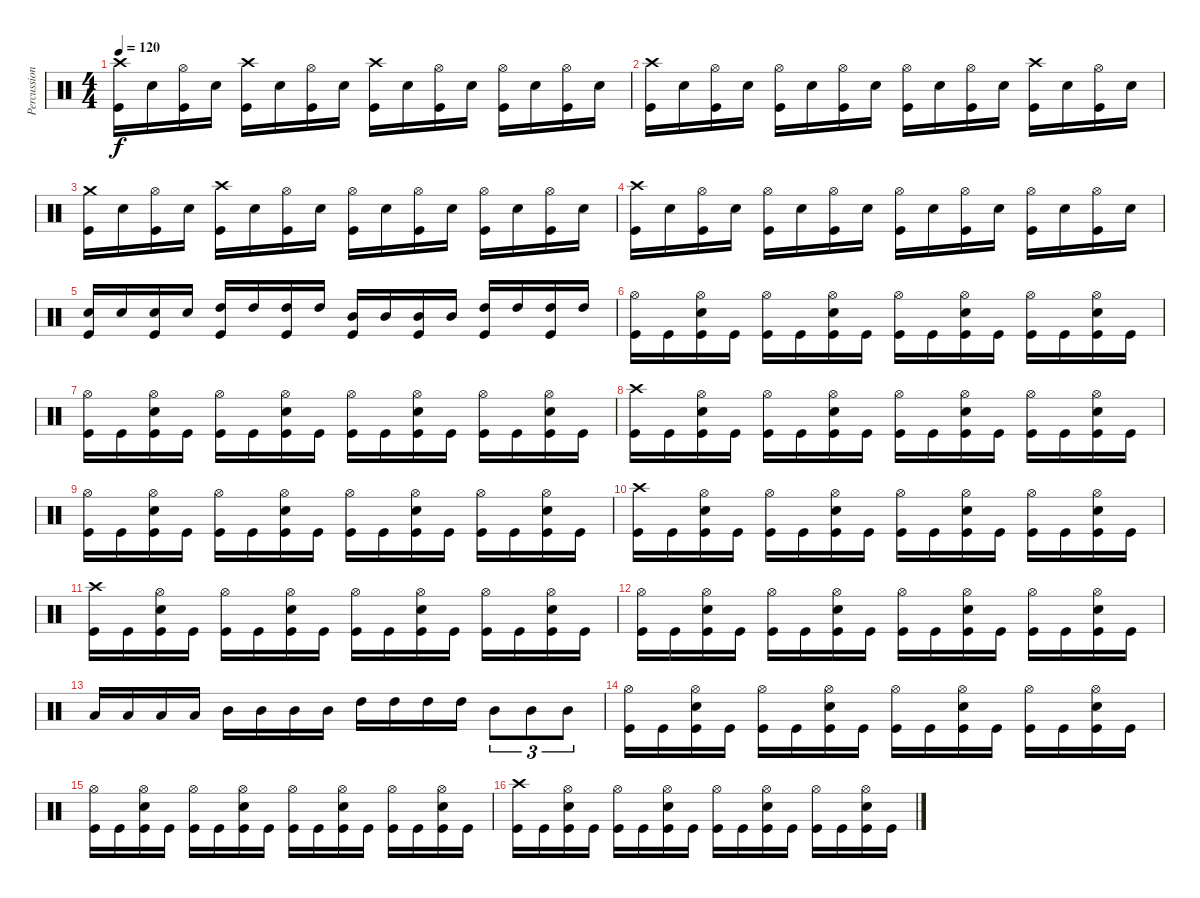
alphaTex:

\track ("Percussioni" "Percussion") {instrument percussion}
\staff {score}
\articulation defaults
\ts (4 4)
\tempo 120
\clef neutral
\ks c
("Crash high (hit)" "Kick (hit)").16{dy f} "Electric Snare (hit)".16 ("Hi-Hat (open)" "Kick (hit)").16 "Electric Snare (hit)".16 ("Crash high (hit)" "Kick (hit)").16 "Electric Snare (hit)".16 ("Hi-Hat (open)" "Kick (hit)").16 "Electric Snare (hit)".16 ("Crash high (hit)" "Kick (hit)").16 "Electric Snare (hit)".16 ("Hi-Hat (open)" "Kick (hit)").16 "Electric Snare (hit)".16 ("Hi-Hat (open)" "Kick (hit)").16 "Electric Snare (hit)".16 ("Hi-Hat (open)" "Kick (hit)").16 "Electric Snare (hit)".16 |
("Crash high (hit)" "Kick (hit)").16 "Electric Snare (hit)".16 ("Hi-Hat (open)" "Kick (hit)").16 "Electric Snare (hit)".16 ("Hi-Hat (open)" "Kick (hit)").16 "Electric Snare (hit)".16 ("Hi-Hat (open)" "Kick (hit)").16 "Electric Snare (hit)".16 ("Hi-Hat (open)" "Kick (hit)").16 "Electric Snare (hit)".16 ("Hi-Hat (open)" "Kick (hit)").16 "Electric Snare (hit)".16 ("Crash high (hit)" "Kick (hit)").16 "Electric Snare (hit)".16 ("Hi-Hat (open)" "Kick (hit)").16 "Electric Snare (hit)".16 |
("Crash medium (hit)" "Kick (hit)").16 "Electric Snare (hit)".16 ("Hi-Hat (open)" "Kick (hit)").16 "Electric Snare (hit)".16 ("Crash high (hit)" "Kick (hit)").16 "Electric Snare (hit)".16 ("Hi-Hat (open)" "Kick (hit)").16 "Electric Snare (hit)".16 ("Hi-Hat (open)" "Kick (hit)").16 "Electric Snare (hit)".16 ("Hi-Hat (open)" "Kick (hit)").16 "Electric Snare (hit)".16 ("Hi-Hat (open)" "Kick (hit)").16 "Electric Snare (hit)".16 ("Hi-Hat (open)" "Kick (hit)").16 "Electric Snare (hit)".16 |
("Crash high (hit)" "Kick (hit)").16 "Electric Snare (hit)".16 ("Hi-Hat (open)" "Kick (hit)").16 "Electric Snare (hit)".16 ("Hi-Hat (open)" "Kick (hit)").16 "Electric Snare (hit)".16 ("Hi-Hat (open)" "Kick (hit)").16 "Electric Snare (hit)".16 ("Hi-Hat (open)" "Kick (hit)").16 "Electric Snare (hit)".16 ("Hi-Hat (open)" "Kick (hit)").16 "Electric Snare (hit)".16 ("Hi-Hat (open)" "Kick (hit)").16 "Electric Snare (hit)".16 ("Hi-Hat (open)" "Kick (hit)").16 "Electric Snare (hit)".16 |
("Electric Snare (hit)" "Kick (hit)").16 "Electric Snare (hit)".16 ("Electric Snare (hit)" "Kick (hit)").16 "Electric Snare (hit)".16 ("High Tom (hit)" "Kick (hit)").16 "High Tom (hit)".16 ("High Tom (hit)" "Kick (hit)").16 "High Tom (hit)".16 ("Mid Tom (hit)" "Kick (hit)").16 "Mid Tom (hit)".16 ("Mid Tom (hit)" "Kick (hit)").16 "Mid Tom (hit)".16 ("High Tom (hit)" "Kick (hit)").16 "High Tom (hit)".16 ("High Tom (hit)" "Kick (hit)").16 "High Tom (hit)".16 |
("Hi-Hat (open)" "Kick (hit)").16 "Kick (hit)".16 ("Hi-Hat (open)" "Electric Snare (hit)" "Kick (hit)").16 "Kick (hit)".16 ("Hi-Hat (open)" "Kick (hit)").16 "Kick (hit)".16 ("Hi-Hat (open)" "Electric Snare (hit)" "Kick (hit)").16 "Kick (hit)".16 ("Hi-Hat (open)" "Kick (hit)").16 "Kick (hit)".16 ("Hi-Hat (open)" "Electric Snare (hit)" "Kick (hit)").16 "Kick (hit)".16 ("Hi-Hat (open)" "Kick (hit)").16 "Kick (hit)".16 ("Hi-Hat (open)" "Electric Snare (hit)" "Kick (hit)").16 "Kick (hit)".16 |
("Hi-Hat (open)" "Kick (hit)").16 "Kick (hit)".16 ("Hi-Hat (open)" "Electric Snare (hit)" "Kick (hit)").16 "Kick (hit)".16 ("Hi-Hat (open)" "Kick (hit)").16 "Kick (hit)".16 ("Hi-Hat (open)" "Electric Snare (hit)" "Kick (hit)").16 "Kick (hit)".16 ("Hi-Hat (open)" "Kick (hit)").16 "Kick (hit)".16 ("Hi-Hat (open)" "Electric Snare (hit)" "Kick (hit)").16 "Kick (hit)".16 ("Hi-Hat (open)" "Kick (hit)").16 "Kick (hit)".16 ("Hi-Hat (open)" "Electric Snare (hit)" "Kick (hit)").16 "Kick (hit)".16 |
("Crash high (hit)" "Kick (hit)").16 "Kick (hit)".16 ("Hi-Hat (open)" "Electric Snare (hit)" "Kick (hit)").16 "Kick (hit)".16 ("Hi-Hat (open)" "Kick (hit)").16 "Kick (hit)".16 ("Hi-Hat (open)" "Electric Snare (hit)" "Kick (hit)").16 "Kick (hit)".16 ("Hi-Hat (open)" "Kick (hit)").16 "Kick (hit)".16 ("Hi-Hat (open)" "Electric Snare (hit)" "Kick (hit)").16 "Kick (hit)".16 ("Hi-Hat (open)" "Kick (hit)").16 "Kick (hit)".16 ("Hi-Hat (open)" "Electric Snare (hit)" "Kick (hit)").16 "Kick (hit)".16 |
("Hi-Hat (open)" "Kick (hit)").16 "Kick (hit)".16 ("Hi-Hat (open)" "Electric Snare (hit)" "Kick (hit)").16 "Kick (hit)".16 ("Hi-Hat (open)" "Kick (hit)").16 "Kick (hit)".16 ("Hi-Hat (open)" "Electric Snare (hit)" "Kick (hit)").16 "Kick (hit)".16 ("Hi-Hat (open)" "Kick (hit)").16 "Kick (hit)".16 ("Hi-Hat (open)" "Electric Snare (hit)" "Kick (hit)").16 "Kick (hit)".16 ("Hi-Hat (open)" "Kick (hit)").16 "Kick (hit)".16 ("Hi-Hat (open)" "Electric Snare (hit)" "Kick (hit)").16 "Kick (hit)".16 |
("Crash high (hit)" "Kick (hit)").16 "Kick (hit)".16 ("Hi-Hat (open)" "Electric Snare (hit)" "Kick (hit)").16 "Kick (hit)".16 ("Hi-Hat (open)" "Kick (hit)").16 "Kick (hit)".16 ("Hi-Hat (open)" "Electric Snare (hit)" "Kick (hit)").16 "Kick (hit)".16 ("Hi-Hat (open)" "Kick (hit)").16 "Kick (hit)".16 ("Hi-Hat (open)" "Electric Snare (hit)" "Kick (hit)").16 "Kick (hit)".16 ("Hi-Hat (open)" "Kick (hit)").16 "Kick (hit)".16 ("Hi-Hat (open)" "Electric Snare (hit)" "Kick (hit)").16 "Kick (hit)".16 |
("Crash high (hit)" "Kick (hit)").16 "Kick (hit)".16 ("Hi-Hat (open)" "Electric Snare (hit)" "Kick (hit)").16 "Kick (hit)".16 ("Hi-Hat (open)" "Kick (hit)").16 "Kick (hit)".16 ("Hi-Hat (open)" "Electric Snare (hit)" "Kick (hit)").16 "Kick (hit)".16 ("Hi-Hat (open)" "Kick (hit)").16 "Kick (hit)".16 ("Hi-Hat (open)" "Electric Snare (hit)" "Kick (hit)").16 "Kick (hit)".16 ("Hi-Hat (open)" "Kick (hit)").16 "Kick (hit)".16 ("Hi-Hat (open)" "Electric Snare (hit)" "Kick (hit)").16 "Kick (hit)".16 |
("Hi-Hat (open)" "Kick (hit)").16 "Kick (hit)".16 ("Hi-Hat (open)" "Electric Snare (hit)" "Kick (hit)").16 "Kick (hit)".16 ("Hi-Hat (open)" "Kick (hit)").16 "Kick (hit)".16 ("Hi-Hat (open)" "Electric Snare (hit)" "Kick (hit)").16 "Kick (hit)".16 ("Hi-Hat (open)" "Kick (hit)").16 "Kick (hit)".16 ("Hi-Hat (open)" "Electric Snare (hit)" "Kick (hit)").16 "Kick (hit)".16 ("Hi-Hat (open)" "Kick (hit)").16 "Kick (hit)".16 ("Hi-Hat (open)" "Electric Snare (hit)" "Kick (hit)").16 "Kick (hit)".16 |
"Low Tom (hit)".16 "Low Tom (hit)".16 "Low Tom (hit)".16 "Low Tom (hit)".16 "Mid Tom (hit)".16 "Mid Tom (hit)".16 "Mid Tom (hit)".16 "Mid Tom (hit)".16 "High Tom (hit)".16 "High Tom (hit)".16 "High Tom (hit)".16 "High Tom (hit)".16 "Mid Tom (hit)".8{tu (3 2)} "Mid Tom (hit)".8{tu (3 2)} "Mid Tom (hit)".8{tu (3 2)} |
("Hi-Hat (open)" "Kick (hit)").16 "Kick (hit)".16 ("Hi-Hat (open)" "Electric Snare (hit)" "Kick (hit)").16 "Kick (hit)".16 ("Hi-Hat (open)" "Kick (hit)").16 "Kick (hit)".16 ("Hi-Hat (open)" "Electric Snare (hit)" "Kick (hit)").16 "Kick (hit)".16 ("Hi-Hat (open)" "Kick (hit)").16 "Kick (hit)".16 ("Hi-Hat (open)" "Electric Snare (hit)" "Kick (hit)").16 "Kick (hit)".16 ("Hi-Hat (open)" "Kick (hit)").16 "Kick (hit)".16 ("Hi-Hat (open)" "Electric Snare (hit)" "Kick (hit)").16 "Kick (hit)".16 |
("Hi-Hat (open)" "Kick (hit)").16 "Kick (hit)".16 ("Hi-Hat (open)" "Electric Snare (hit)" "Kick (hit)").16 "Kick (hit)".16 ("Hi-Hat (open)" "Kick (hit)").16 "Kick (hit)".16 ("Hi-Hat (open)" "Electric Snare (hit)" "Kick (hit)").16 "Kick (hit)".16 ("Hi-Hat (open)" "Kick (hit)").16 "Kick (hit)".16 ("Hi-Hat (open)" "Electric Snare (hit)" "Kick (hit)").16 "Kick (hit)".16 ("Hi-Hat (open)" "Kick (hit)").16 "Kick (hit)".16 ("Hi-Hat (open)" "Electric Snare (hit)" "Kick (hit)").16 "Kick (hit)".16 |
("Crash high (hit)" "Kick (hit)").16 "Kick (hit)".16 ("Hi-Hat (open)" "Electric Snare (hit)" "Kick (hit)").16 "Kick (hit)".16 ("Hi-Hat (open)" "Kick (hit)").16 "Kick (hit)".16 ("Hi-Hat (open)" "Electric Snare (hit)" "Kick (hit)").16 "Kick (hit)".16 ("Hi-Hat (open)" "Kick (hit)").16 "Kick (hit)".16 ("Hi-Hat (open)" "Electric Snare (hit)" "Kick (hit)").16 "Kick (hit)".16 ("Hi-Hat (open)" "Kick (hit)").16 "Kick (hit)".16 ("Hi-Hat (open)" "Electric Snare (hit)" "Kick (hit)").16 "Kick (hit)".16
